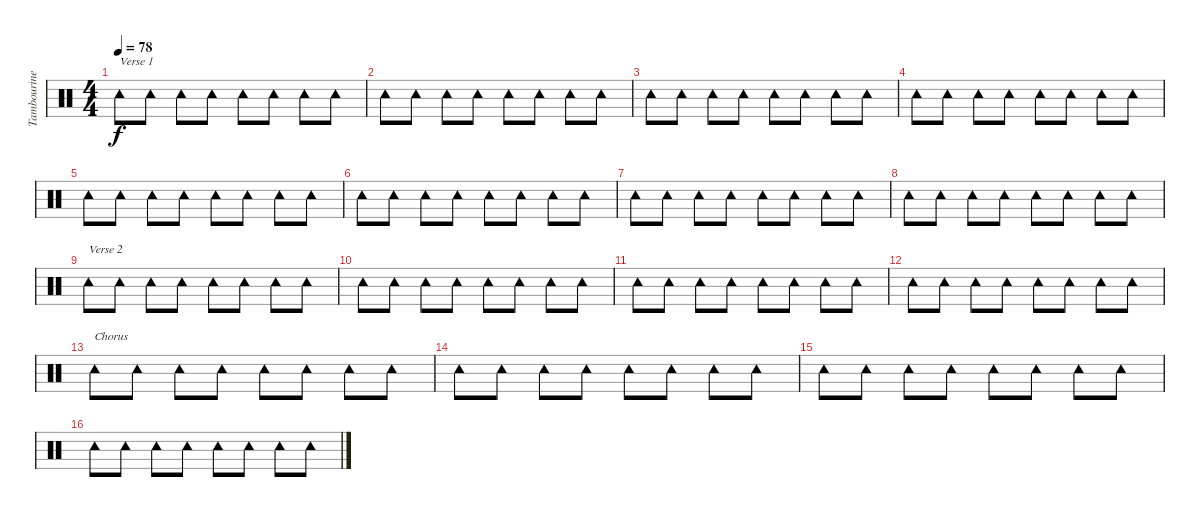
\track ("Tambourine" "Tambourine") {instrument percussion}
\staff {score}
\articulation defaults
\ts (4 4)
\tempo 78
\clef neutral
\ks c "Tambourine (hit)".8{txt "Verse 1" dy f} "Tambourine (hit)".8 "Tambourine (hit)".8 "Tambourine (hit)".8 "Tambourine (hit)".8 "Tambourine (hit)".8 "Tambourine (hit)".8 "Tambourine (hit)".8
|
"Tambourine (hit)".8 "Tambourine (hit)".8 "Tambourine (hit)".8 "Tambourine (hit)".8 "Tambourine (hit)".8 "Tambourine (hit)".8 "Tambourine (hit)".8 "Tambourine (hit)".8 |
"Tambourine (hit)".8 "Tambourine (hit)".8 "Tambourine (hit)".8 "Tambourine (hit)".8 "Tambourine (hit)".8 "Tambourine (hit)".8 "Tambourine (hit)".8 "Tambourine (hit)".8 |
"Tambourine (hit)".8 "Tambourine (hit)".8 "Tambourine (hit)".8 "Tambourine (hit)".8 "Tambourine (hit)".8 "Tambourine (hit)".8 "Tambourine (hit)".8 "Tambourine (hit)".8 |
"Tambourine (hit)".8 "Tambourine (hit)".8 "Tambourine (hit)".8 "Tambourine (hit)".8 "Tambourine (hit)".8 "Tambourine (hit)".8 "Tambourine (hit)".8 "Tambourine (hit)".8 |
"Tambourine (hit)".8 "Tambourine (hit)".8 "Tambourine (hit)".8 "Tambourine (hit)".8 "Tambourine (hit)".8 "Tambourine (hit)".8 "Tambourine (hit)".8 "Tambourine (hit)".8 |
"Tambourine (hit)".8 "Tambourine (hit)".8 "Tambourine (hit)".8 "Tambourine (hit)".8 "Tambourine (hit)".8 "Tambourine (hit)".8 "Tambourine (hit)".8 "Tambourine (hit)".8 |
"Tambourine (hit)".8 "Tambourine (hit)".8 "Tambourine (hit)".8 "Tambourine (hit)".8 "Tambourine (hit)".8 "Tambourine (hit)".8 "Tambourine (hit)".8 "Tambourine (hit)".8 |
"Tambourine (hit)".8{txt "Verse 2"} "Tambourine (hit)".8 "Tambourine (hit)".8 "Tambourine (hit)".8 "Tambourine (hit)".8 "Tambourine (hit)".8 "Tambourine (hit)".8 "Tambourine (hit)".8 |
"Tambourine (hit)".8 "Tambourine (hit)".8 "Tambourine (hit)".8 "Tambourine (hit)".8 "Tambourine (hit)".8 "Tambourine (hit)".8 "Tambourine (hit)".8 "Tambourine (hit)".8 |
"Tambourine (hit)".8 "Tambourine (hit)".8 "Tambourine (hit)".8 "Tambourine (hit)".8 "Tambourine (hit)".8 "Tambourine (hit)".8 "Tambourine (hit)".8 "Tambourine (hit)".8 |
"Tambourine (hit)".8 "Tambourine (hit)".8 "Tambourine (hit)".8 "Tambourine (hit)".8 "Tambourine (hit)".8 "Tambourine (hit)".8 "Tambourine (hit)".8 "Tambourine (hit)".8 |
"Tambourine (hit)".8{txt "Chorus"} "Tambourine (hit)".8 "Tambourine (hit)".8 "Tambourine (hit)".8 "Tambourine (hit)".8 "Tambourine (hit)".8 "Tambourine (hit)".8 "Tambourine (hit)".8 |
"Tambourine (hit)".8 "Tambourine (hit)".8 "Tambourine (hit)".8 "Tambourine (hit)".8 "Tambourine (hit)".8 "Tambourine (hit)".8 "Tambourine (hit)".8 "Tambourine (hit)".8 |
"Tambourine (hit)".8 "Tambourine (hit)".8 "Tambourine (hit)".8 "Tambourine (hit)".8 "Tambourine (hit)".8 "Tambourine (hit)".8 "Tambourine (hit)".8 "Tambourine (hit)".8 |
"Tambourine (hit)".8 "Tambourine (hit)".8 "Tambourine (hit)".8 "Tambourine (hit)".8 "Tambourine (hit)".8 "Tambourine (hit)".8 "Tambourine (hit)".8 "Tambourine (hit)".8
